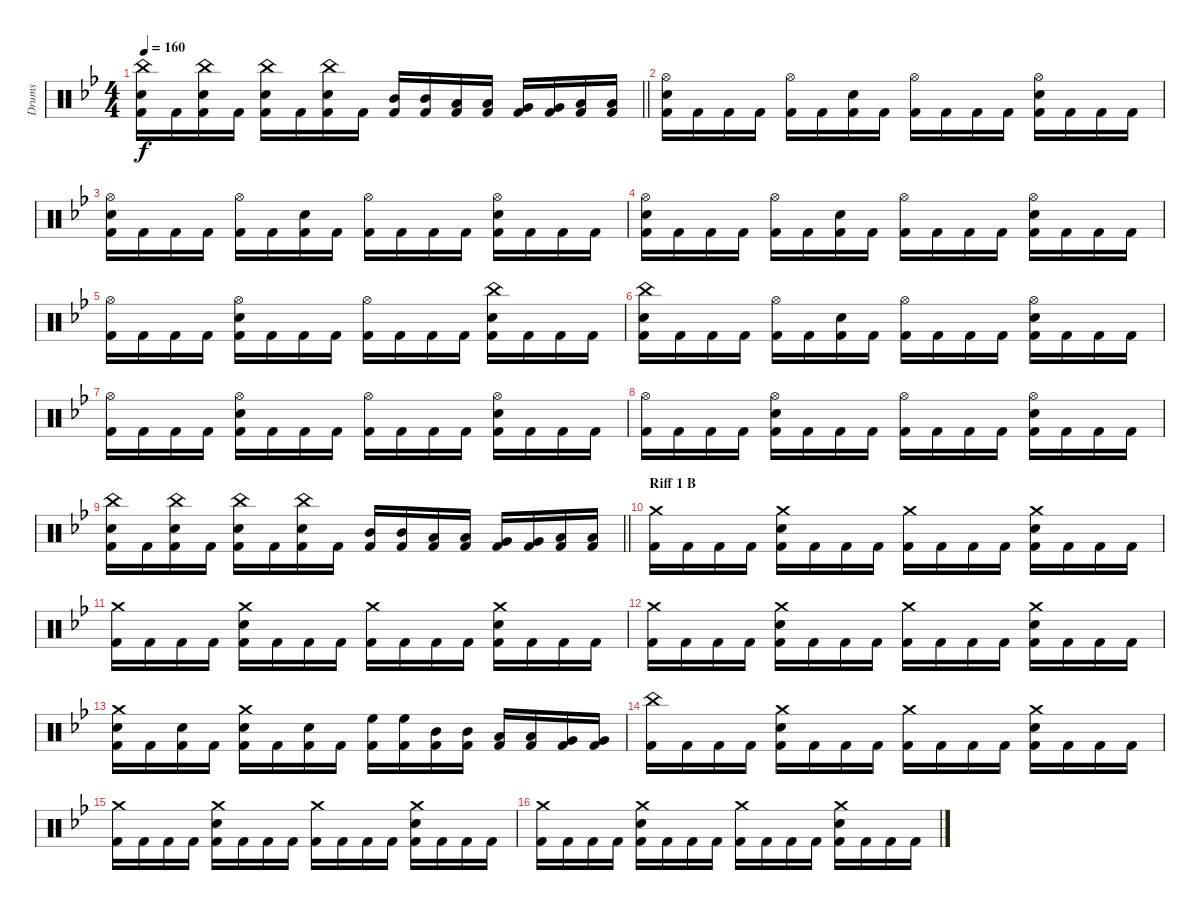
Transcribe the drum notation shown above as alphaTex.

\track ("Drums" "Drums") {instrument percussion}
\staff {score}
\articulation defaults
\ts (4 4)
\tempo 160
\clef neutral
\barLineRight lightlight
\ks bb
("China (hit)" "Electric Snare (hit)" "Kick (hit) 2").16{dy f} "Kick (hit) 2".16 ("China (hit)" "Electric Snare (hit)" "Kick (hit) 2").16 "Kick (hit) 2".16 ("China (hit)" "Electric Snare (hit)" "Kick (hit) 2").16 "Kick (hit) 2".16 ("China (hit)" "Electric Snare (hit)" "Kick (hit) 2").16 "Kick (hit) 2".16 ("Mid Tom (hit)" "Kick (hit) 2").16 ("Mid Tom (hit)" "Kick (hit) 2").16 ("Low Tom (hit)" "Kick (hit) 2").16 ("Low Tom (hit)" "Kick (hit) 2").16 ("Very Low Tom (hit)" "Kick (hit) 2").16 ("Very Low Tom (hit)" "Kick (hit) 2").16 ("Low Floor Tom (hit)" "Kick (hit) 2").16 ("Low Floor Tom (hit)" "Kick (hit) 2").16 |
("Hi-Hat (open)" "Electric Snare (hit)" "Kick (hit) 2").16 "Kick (hit) 2".16 "Kick (hit) 2".16 "Kick (hit) 2".16 ("Hi-Hat (open)" "Kick (hit) 2").16 "Kick (hit) 2".16 ("Electric Snare (hit)" "Kick (hit) 2").16 "Kick (hit) 2".16 ("Hi-Hat (open)" "Kick (hit) 2").16 "Kick (hit) 2".16 "Kick (hit) 2".16 "Kick (hit) 2".16 ("Hi-Hat (open)" "Electric Snare (hit)" "Kick (hit) 2").16 "Kick (hit) 2".16 "Kick (hit) 2".16 "Kick (hit) 2".16 |
("Hi-Hat (open)" "Electric Snare (hit)" "Kick (hit) 2").16 "Kick (hit) 2".16 "Kick (hit) 2".16 "Kick (hit) 2".16 ("Hi-Hat (open)" "Kick (hit) 2").16 "Kick (hit) 2".16 ("Electric Snare (hit)" "Kick (hit) 2").16 "Kick (hit) 2".16 ("Hi-Hat (open)" "Kick (hit) 2").16 "Kick (hit) 2".16 "Kick (hit) 2".16 "Kick (hit) 2".16 ("Hi-Hat (open)" "Electric Snare (hit)" "Kick (hit) 2").16 "Kick (hit) 2".16 "Kick (hit) 2".16 "Kick (hit) 2".16 |
("Hi-Hat (open)" "Electric Snare (hit)" "Kick (hit) 2").16 "Kick (hit) 2".16 "Kick (hit) 2".16 "Kick (hit) 2".16 ("Hi-Hat (open)" "Kick (hit) 2").16 "Kick (hit) 2".16 ("Electric Snare (hit)" "Kick (hit) 2").16 "Kick (hit) 2".16 ("Hi-Hat (open)" "Kick (hit) 2").16 "Kick (hit) 2".16 "Kick (hit) 2".16 "Kick (hit) 2".16 ("Hi-Hat (open)" "Electric Snare (hit)" "Kick (hit) 2").16 "Kick (hit) 2".16 "Kick (hit) 2".16 "Kick (hit) 2".16 |
("Hi-Hat (open)" "Kick (hit) 2").16 "Kick (hit) 2".16 "Kick (hit) 2".16 "Kick (hit) 2".16 ("Hi-Hat (open)" "Electric Snare (hit)" "Kick (hit) 2").16 "Kick (hit) 2".16 "Kick (hit) 2".16 "Kick (hit) 2".16 ("Hi-Hat (open)" "Kick (hit) 2").16 "Kick (hit) 2".16 "Kick (hit) 2".16 "Kick (hit) 2".16 ("China (hit)" "Electric Snare (hit)" "Kick (hit) 2").16 "Kick (hit) 2".16 "Kick (hit) 2".16 "Kick (hit) 2".16 |
("China (hit)" "Electric Snare (hit)" "Kick (hit) 2").16 "Kick (hit) 2".16 "Kick (hit) 2".16 "Kick (hit) 2".16 ("Hi-Hat (open)" "Kick (hit) 2").16 "Kick (hit) 2".16 ("Electric Snare (hit)" "Kick (hit) 2").16 "Kick (hit) 2".16 ("Hi-Hat (open)" "Kick (hit) 2").16 "Kick (hit) 2".16 "Kick (hit) 2".16 "Kick (hit) 2".16 ("Hi-Hat (open)" "Electric Snare (hit)" "Kick (hit) 2").16 "Kick (hit) 2".16 "Kick (hit) 2".16 "Kick (hit) 2".16 |
("Hi-Hat (open)" "Kick (hit) 2").16 "Kick (hit) 2".16 "Kick (hit) 2".16 "Kick (hit) 2".16 ("Hi-Hat (open)" "Electric Snare (hit)" "Kick (hit) 2").16 "Kick (hit) 2".16 "Kick (hit) 2".16 "Kick (hit) 2".16 ("Hi-Hat (open)" "Kick (hit) 2").16 "Kick (hit) 2".16 "Kick (hit) 2".16 "Kick (hit) 2".16 ("Hi-Hat (open)" "Electric Snare (hit)" "Kick (hit) 2").16 "Kick (hit) 2".16 "Kick (hit) 2".16 "Kick (hit) 2".16 |
("Hi-Hat (open)" "Kick (hit) 2").16 "Kick (hit) 2".16 "Kick (hit) 2".16 "Kick (hit) 2".16 ("Hi-Hat (open)" "Electric Snare (hit)" "Kick (hit) 2").16 "Kick (hit) 2".16 "Kick (hit) 2".16 "Kick (hit) 2".16 ("Hi-Hat (open)" "Kick (hit) 2").16 "Kick (hit) 2".16 "Kick (hit) 2".16 "Kick (hit) 2".16 ("Hi-Hat (open)" "Electric Snare (hit)" "Kick (hit) 2").16 "Kick (hit) 2".16 "Kick (hit) 2".16 "Kick (hit) 2".16 |
\barLineRight lightlight
("China (hit)" "Electric Snare (hit)" "Kick (hit) 2").16 "Kick (hit) 2".16 ("China (hit)" "Electric Snare (hit)" "Kick (hit) 2").16 "Kick (hit) 2".16 ("China (hit)" "Electric Snare (hit)" "Kick (hit) 2").16 "Kick (hit) 2".16 ("China (hit)" "Electric Snare (hit)" "Kick (hit) 2").16 "Kick (hit) 2".16 ("Mid Tom (hit)" "Kick (hit) 2").16 ("Mid Tom (hit)" "Kick (hit) 2").16 ("Low Tom (hit)" "Kick (hit) 2").16 ("Low Tom (hit)" "Kick (hit) 2").16 ("Very Low Tom (hit)" "Kick (hit) 2").16 ("Very Low Tom (hit)" "Kick (hit) 2").16 ("Low Floor Tom (hit)" "Kick (hit) 2").16 ("Low Floor Tom (hit)" "Kick (hit) 2").16 |
\section ("" "Riff 1 B")
("Crash medium (hit)" "Kick (hit) 2").16 "Kick (hit) 2".16 "Kick (hit) 2".16 "Kick (hit) 2".16 ("Crash medium (hit)" "Electric Snare (hit)" "Kick (hit) 2").16 "Kick (hit) 2".16 "Kick (hit) 2".16 "Kick (hit) 2".16 ("Crash medium (hit)" "Kick (hit) 2").16 "Kick (hit) 2".16 "Kick (hit) 2".16 "Kick (hit) 2".16 ("Crash medium (hit)" "Electric Snare (hit)" "Kick (hit) 2").16 "Kick (hit) 2".16 "Kick (hit) 2".16 "Kick (hit) 2".16 |
("Crash medium (hit)" "Kick (hit) 2").16 "Kick (hit) 2".16 "Kick (hit) 2".16 "Kick (hit) 2".16 ("Crash medium (hit)" "Electric Snare (hit)" "Kick (hit) 2").16 "Kick (hit) 2".16 "Kick (hit) 2".16 "Kick (hit) 2".16 ("Crash medium (hit)" "Kick (hit) 2").16 "Kick (hit) 2".16 "Kick (hit) 2".16 "Kick (hit) 2".16 ("Crash medium (hit)" "Electric Snare (hit)" "Kick (hit) 2").16 "Kick (hit) 2".16 "Kick (hit) 2".16 "Kick (hit) 2".16 |
("Crash medium (hit)" "Kick (hit) 2").16 "Kick (hit) 2".16 "Kick (hit) 2".16 "Kick (hit) 2".16 ("Crash medium (hit)" "Electric Snare (hit)" "Kick (hit) 2").16 "Kick (hit) 2".16 "Kick (hit) 2".16 "Kick (hit) 2".16 ("Crash medium (hit)" "Kick (hit) 2").16 "Kick (hit) 2".16 "Kick (hit) 2".16 "Kick (hit) 2".16 ("Crash medium (hit)" "Electric Snare (hit)" "Kick (hit) 2").16 "Kick (hit) 2".16 "Kick (hit) 2".16 "Kick (hit) 2".16 |
("Crash medium (hit)" "Electric Snare (hit)" "Kick (hit) 2").16 "Kick (hit) 2".16 ("Electric Snare (hit)" "Kick (hit) 2").16 "Kick (hit) 2".16 ("Crash medium (hit)" "Electric Snare (hit)" "Kick (hit) 2").16 "Kick (hit) 2".16 ("Electric Snare (hit)" "Kick (hit) 2").16 "Kick (hit) 2".16 ("High Floor Tom (hit)" "Kick (hit) 2").16 ("High Floor Tom (hit)" "Kick (hit) 2").16 ("Mid Tom (hit)" "Kick (hit) 2").16 ("Mid Tom (hit)" "Kick (hit) 2").16 ("Low Tom (hit)" "Kick (hit) 2").16 ("Low Tom (hit)" "Kick (hit) 2").16 ("Very Low Tom (hit)" "Kick (hit) 2").16 ("Very Low Tom (hit)" "Kick (hit) 2").16 |
("China (hit)" "Kick (hit) 2").16 "Kick (hit) 2".16 "Kick (hit) 2".16 "Kick (hit) 2".16 ("Crash medium (hit)" "Electric Snare (hit)" "Kick (hit) 2").16 "Kick (hit) 2".16 "Kick (hit) 2".16 "Kick (hit) 2".16 ("Crash medium (hit)" "Kick (hit) 2").16 "Kick (hit) 2".16 "Kick (hit) 2".16 "Kick (hit) 2".16 ("Crash medium (hit)" "Electric Snare (hit)" "Kick (hit) 2").16 "Kick (hit) 2".16 "Kick (hit) 2".16 "Kick (hit) 2".16 |
("Crash medium (hit)" "Kick (hit) 2").16 "Kick (hit) 2".16 "Kick (hit) 2".16 "Kick (hit) 2".16 ("Crash medium (hit)" "Electric Snare (hit)" "Kick (hit) 2").16 "Kick (hit) 2".16 "Kick (hit) 2".16 "Kick (hit) 2".16 ("Crash medium (hit)" "Kick (hit) 2").16 "Kick (hit) 2".16 "Kick (hit) 2".16 "Kick (hit) 2".16 ("Crash medium (hit)" "Electric Snare (hit)" "Kick (hit) 2").16 "Kick (hit) 2".16 "Kick (hit) 2".16 "Kick (hit) 2".16 |
("Crash medium (hit)" "Kick (hit) 2").16 "Kick (hit) 2".16 "Kick (hit) 2".16 "Kick (hit) 2".16 ("Crash medium (hit)" "Electric Snare (hit)" "Kick (hit) 2").16 "Kick (hit) 2".16 "Kick (hit) 2".16 "Kick (hit) 2".16 ("Crash medium (hit)" "Kick (hit) 2").16 "Kick (hit) 2".16 "Kick (hit) 2".16 "Kick (hit) 2".16 ("Crash medium (hit)" "Electric Snare (hit)" "Kick (hit) 2").16 "Kick (hit) 2".16 "Kick (hit) 2".16 "Kick (hit) 2".16
